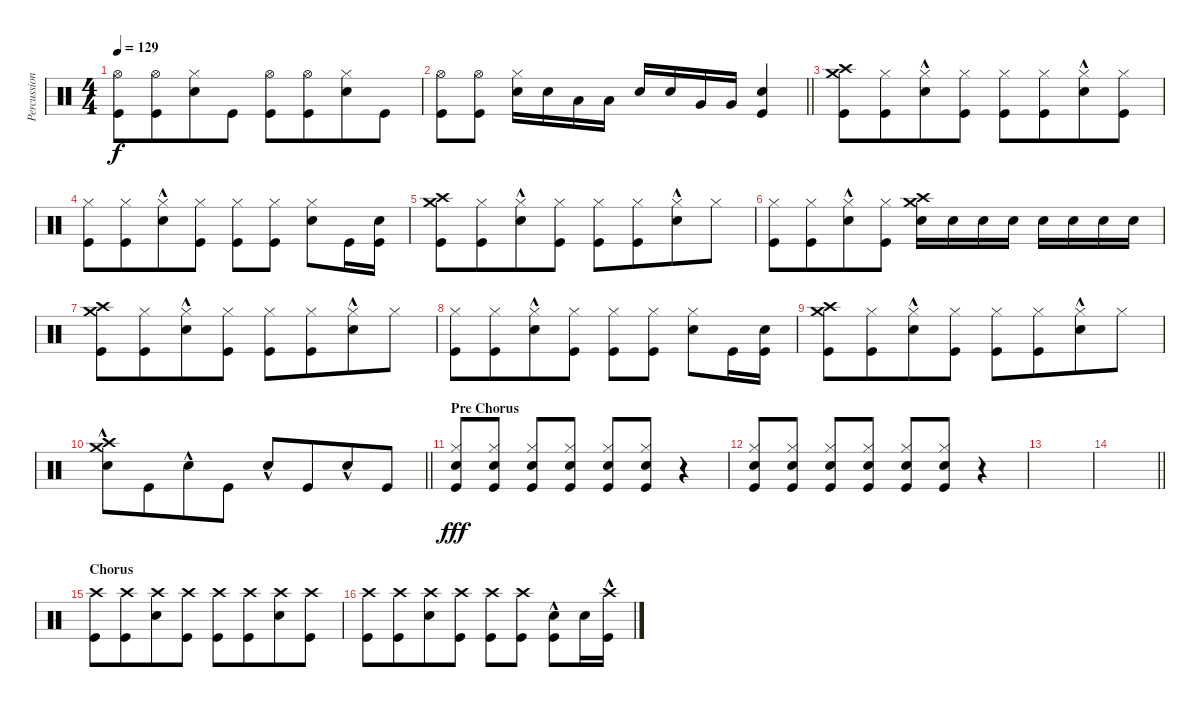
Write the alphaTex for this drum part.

\track ("Percussion" "Percussion") {instrument percussion}
\staff {score}
\articulation defaults
\ts (4 4)
\tempo 129
\clef neutral
\ks c
("Hi-Hat (open)" "Kick (hit)").8{dy f} ("Hi-Hat (open)" "Kick (hit)").8{beam merge} ("Hi-Hat (closed)" "Snare (hit) 2").8 "Kick (hit)".8 ("Hi-Hat (open)" "Kick (hit)").8 ("Hi-Hat (open)" "Kick (hit)").8{beam merge} ("Hi-Hat (closed)" "Snare (hit) 2").8 "Kick (hit)".8 |
\barLineRight lightlight
("Hi-Hat (open)" "Kick (hit)").8 ("Hi-Hat (open)" "Kick (hit)").8 ("Hi-Hat (closed)" "Snare (hit) 2").16 "Snare (hit) 2".16 "Low Tom (hit)".16 "Low Tom (hit)".16 "Snare (hit) 2".16 "Snare (hit) 2".16 "Very Low Tom (hit)".16 "Very Low Tom (hit)".16 ("Snare (hit) 2" "Kick (hit)").4 |
("Crash medium (hit)" "Crash high (hit)" "Kick (hit)").8 ("Hi-Hat (closed)" "Kick (hit)").8{beam merge} ("Hi-Hat (closed)" "Snare (hit) 2"{hac}).8 ("Hi-Hat (closed)" "Kick (hit)").8 ("Hi-Hat (closed)" "Kick (hit)").8 ("Hi-Hat (closed)" "Kick (hit)").8{beam merge} ("Hi-Hat (closed)" "Snare (hit) 2"{hac}).8 ("Hi-Hat (closed)" "Kick (hit)").8 |
("Hi-Hat (closed)" "Kick (hit)").8 ("Hi-Hat (closed)" "Kick (hit)").8{beam merge} ("Hi-Hat (closed)" "Snare (hit) 2"{hac}).8 ("Hi-Hat (closed)" "Kick (hit)").8 ("Hi-Hat (closed)" "Kick (hit)").8 ("Hi-Hat (closed)" "Kick (hit)").8 ("Hi-Hat (closed)" "Snare (hit) 2").8 "Kick (hit)".16 ("Snare (hit) 2" "Kick (hit)").16 |
("Crash medium (hit)" "Crash high (hit)" "Kick (hit)").8 ("Hi-Hat (closed)" "Kick (hit)").8{beam merge} ("Hi-Hat (closed)" "Snare (hit) 2"{hac}).8 ("Hi-Hat (closed)" "Kick (hit)").8 ("Hi-Hat (closed)" "Kick (hit)").8 ("Hi-Hat (closed)" "Kick (hit)").8{beam merge} ("Hi-Hat (closed)" "Snare (hit) 2"{hac}).8 "Hi-Hat (closed)".8 |
("Hi-Hat (closed)" "Kick (hit)").8 ("Hi-Hat (closed)" "Kick (hit)").8{beam merge} ("Hi-Hat (closed)" "Snare (hit) 2"{hac}).8 ("Hi-Hat (closed)" "Kick (hit)").8 ("Crash medium (hit)" "Crash high (hit)" "Snare (hit) 2").16 "Snare (hit) 2".16 "Snare (hit) 2".16 "Snare (hit) 2".16 "Snare (hit) 2".16 "Snare (hit) 2".16 "Snare (hit) 2".16 "Snare (hit) 2".16 |
("Crash medium (hit)" "Crash high (hit)" "Kick (hit)").8 ("Hi-Hat (closed)" "Kick (hit)").8{beam merge} ("Hi-Hat (closed)" "Snare (hit) 2"{hac}).8 ("Hi-Hat (closed)" "Kick (hit)").8 ("Hi-Hat (closed)" "Kick (hit)").8 ("Hi-Hat (closed)" "Kick (hit)").8{beam merge} ("Hi-Hat (closed)" "Snare (hit) 2"{hac}).8 "Hi-Hat (closed)".8 |
("Hi-Hat (closed)" "Kick (hit)").8 ("Hi-Hat (closed)" "Kick (hit)").8{beam merge} ("Hi-Hat (closed)" "Snare (hit) 2"{hac}).8 ("Hi-Hat (closed)" "Kick (hit)").8 ("Hi-Hat (closed)" "Kick (hit)").8 ("Hi-Hat (closed)" "Kick (hit)").8 ("Hi-Hat (closed)" "Snare (hit) 2").8 "Kick (hit)".16 ("Snare (hit) 2" "Kick (hit)").16 |
("Crash medium (hit)" "Crash high (hit)" "Kick (hit)").8 ("Hi-Hat (closed)" "Kick (hit)").8{beam merge} ("Hi-Hat (closed)" "Snare (hit) 2"{hac}).8 ("Hi-Hat (closed)" "Kick (hit)").8 ("Hi-Hat (closed)" "Kick (hit)").8 ("Hi-Hat (closed)" "Kick (hit)").8{beam merge} ("Hi-Hat (closed)" "Snare (hit) 2"{hac}).8 "Hi-Hat (closed)".8 |
\barLineRight lightlight
("Crash medium (hit)" "Crash high (hit)" "Snare (hit) 2"{hac}).8 "Kick (hit)".8{beam merge} "Snare (hit) 2"{hac}.8 "Kick (hit)".8 "Snare (hit) 2"{hac}.8 "Kick (hit)".8{beam merge} "Snare (hit) 2"{hac}.8 "Kick (hit)".8 |
\section ("" "Pre Chorus")
("Hi-Hat (closed)" "Snare (hit) 2" "Kick (hit)").8{dy fff} ("Hi-Hat (closed)" "Snare (hit) 2" "Kick (hit)").8 ("Hi-Hat (closed)" "Snare (hit) 2" "Kick (hit)").8 ("Hi-Hat (closed)" "Snare (hit) 2" "Kick (hit)").8 ("Hi-Hat (closed)" "Snare (hit) 2" "Kick (hit)").8 ("Hi-Hat (closed)" "Snare (hit) 2" "Kick (hit)").8 r.4 |
("Hi-Hat (closed)" "Snare (hit) 2" "Kick (hit)").8 ("Hi-Hat (closed)" "Snare (hit) 2" "Kick (hit)").8 ("Hi-Hat (closed)" "Snare (hit) 2" "Kick (hit)").8 ("Hi-Hat (closed)" "Snare (hit) 2" "Kick (hit)").8 ("Hi-Hat (closed)" "Snare (hit) 2" "Kick (hit)").8 ("Hi-Hat (closed)" "Snare (hit) 2" "Kick (hit)").8 r.4 |
|
\barLineRight lightlight
|
\section ("" "Chorus")
("Crash high (hit)" "Kick (hit)").8 ("Crash high (hit)" "Kick (hit)").8{beam merge} ("Crash high (hit)" "Snare (hit) 2").8 ("Crash high (hit)" "Kick (hit)").8 ("Crash high (hit)" "Kick (hit)").8 ("Crash high (hit)" "Kick (hit)").8{beam merge} ("Crash high (hit)" "Snare (hit) 2").8 ("Crash high (hit)" "Kick (hit)").8 |
("Crash high (hit)" "Kick (hit)").8 ("Crash high (hit)" "Kick (hit)").8{beam merge} ("Crash high (hit)" "Snare (hit) 2").8 ("Crash high (hit)" "Kick (hit)").8 ("Crash high (hit)" "Kick (hit)").8 ("Crash high (hit)" "Kick (hit)").8 ("Snare (hit) 2" "Kick (hit)"{hac}).8 "Snare (hit) 2".16 ("Crash high (hit)" "Kick (hit)"{hac}).16
